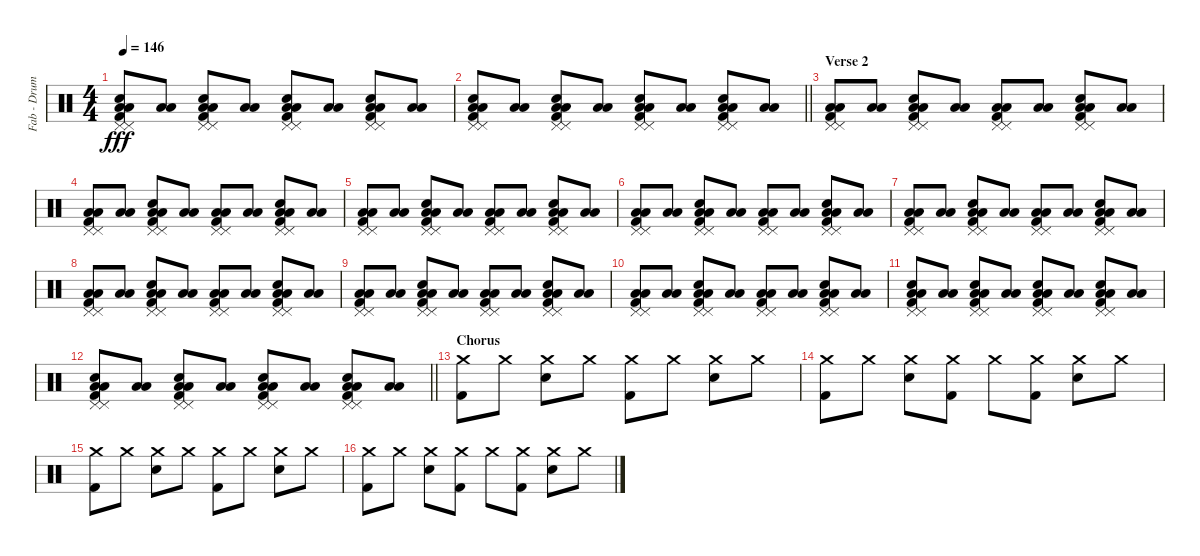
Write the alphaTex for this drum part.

\track ("Fab - Drums MIDI" "Fab - Drum") {instrument percussion}
\staff {score}
\articulation defaults
\ts (4 4)
\tempo 146
\clef neutral
\ks c
("Low Floor Tom (hit)" "Pedal Hi-Hat (hit)" "Snare (hit) 2" "Kick (hit) 2" "Pedal Hi-Hat (hit)" "Low Floor Tom (hit)").8{dy fff} ("Low Floor Tom (hit)" "Low Floor Tom (hit)").8 ("Low Floor Tom (hit)" "Pedal Hi-Hat (hit)" "Snare (hit) 2" "Kick (hit) 2" "Pedal Hi-Hat (hit)" "Low Floor Tom (hit)").8 ("Low Floor Tom (hit)" "Low Floor Tom (hit)").8 ("Low Floor Tom (hit)" "Pedal Hi-Hat (hit)" "Snare (hit) 2" "Kick (hit) 2" "Pedal Hi-Hat (hit)" "Low Floor Tom (hit)").8 ("Low Floor Tom (hit)" "Low Floor Tom (hit)").8 ("Low Floor Tom (hit)" "Pedal Hi-Hat (hit)" "Snare (hit) 2" "Kick (hit) 2" "Pedal Hi-Hat (hit)" "Low Floor Tom (hit)").8 ("Low Floor Tom (hit)" "Low Floor Tom (hit)").8 |
\barLineRight lightlight
("Low Floor Tom (hit)" "Pedal Hi-Hat (hit)" "Snare (hit) 2" "Kick (hit) 2" "Pedal Hi-Hat (hit)" "Low Floor Tom (hit)").8 ("Low Floor Tom (hit)" "Low Floor Tom (hit)").8 ("Low Floor Tom (hit)" "Pedal Hi-Hat (hit)" "Snare (hit) 2" "Kick (hit) 2" "Pedal Hi-Hat (hit)" "Low Floor Tom (hit)").8 ("Low Floor Tom (hit)" "Low Floor Tom (hit)").8 ("Low Floor Tom (hit)" "Pedal Hi-Hat (hit)" "Snare (hit) 2" "Kick (hit) 2" "Pedal Hi-Hat (hit)" "Low Floor Tom (hit)").8 ("Low Floor Tom (hit)" "Low Floor Tom (hit)").8 ("Low Floor Tom (hit)" "Pedal Hi-Hat (hit)" "Snare (hit) 2" "Kick (hit) 2" "Pedal Hi-Hat (hit)" "Low Floor Tom (hit)").8 ("Low Floor Tom (hit)" "Low Floor Tom (hit)").8 |
\section ("" "Verse 2")
("Low Floor Tom (hit)" "Pedal Hi-Hat (hit)" "Kick (hit) 2" "Pedal Hi-Hat (hit)" "Low Floor Tom (hit)").8 ("Low Floor Tom (hit)" "Low Floor Tom (hit)").8 ("Low Floor Tom (hit)" "Pedal Hi-Hat (hit)" "Snare (hit) 2" "Kick (hit) 2" "Pedal Hi-Hat (hit)" "Low Floor Tom (hit)").8 ("Low Floor Tom (hit)" "Low Floor Tom (hit)").8 ("Low Floor Tom (hit)" "Pedal Hi-Hat (hit)" "Kick (hit) 2" "Pedal Hi-Hat (hit)" "Low Floor Tom (hit)").8 ("Low Floor Tom (hit)" "Low Floor Tom (hit)").8 ("Low Floor Tom (hit)" "Pedal Hi-Hat (hit)" "Snare (hit) 2" "Kick (hit) 2" "Pedal Hi-Hat (hit)" "Low Floor Tom (hit)").8 ("Low Floor Tom (hit)" "Low Floor Tom (hit)").8 |
("Low Floor Tom (hit)" "Pedal Hi-Hat (hit)" "Kick (hit) 2" "Pedal Hi-Hat (hit)" "Low Floor Tom (hit)").8 ("Low Floor Tom (hit)" "Low Floor Tom (hit)").8 ("Low Floor Tom (hit)" "Pedal Hi-Hat (hit)" "Snare (hit) 2" "Kick (hit) 2" "Pedal Hi-Hat (hit)" "Low Floor Tom (hit)").8 ("Low Floor Tom (hit)" "Low Floor Tom (hit)").8 ("Low Floor Tom (hit)" "Pedal Hi-Hat (hit)" "Kick (hit) 2" "Pedal Hi-Hat (hit)" "Low Floor Tom (hit)").8 ("Low Floor Tom (hit)" "Low Floor Tom (hit)").8 ("Low Floor Tom (hit)" "Pedal Hi-Hat (hit)" "Snare (hit) 2" "Kick (hit) 2" "Pedal Hi-Hat (hit)" "Low Floor Tom (hit)").8 ("Low Floor Tom (hit)" "Low Floor Tom (hit)").8 |
("Low Floor Tom (hit)" "Pedal Hi-Hat (hit)" "Kick (hit) 2" "Pedal Hi-Hat (hit)" "Low Floor Tom (hit)").8 ("Low Floor Tom (hit)" "Low Floor Tom (hit)").8 ("Low Floor Tom (hit)" "Pedal Hi-Hat (hit)" "Snare (hit) 2" "Kick (hit) 2" "Pedal Hi-Hat (hit)" "Low Floor Tom (hit)").8 ("Low Floor Tom (hit)" "Low Floor Tom (hit)").8 ("Low Floor Tom (hit)" "Pedal Hi-Hat (hit)" "Kick (hit) 2" "Pedal Hi-Hat (hit)" "Low Floor Tom (hit)").8 ("Low Floor Tom (hit)" "Low Floor Tom (hit)").8 ("Low Floor Tom (hit)" "Pedal Hi-Hat (hit)" "Snare (hit) 2" "Kick (hit) 2" "Pedal Hi-Hat (hit)" "Low Floor Tom (hit)").8 ("Low Floor Tom (hit)" "Low Floor Tom (hit)").8 |
("Low Floor Tom (hit)" "Pedal Hi-Hat (hit)" "Kick (hit) 2" "Pedal Hi-Hat (hit)" "Low Floor Tom (hit)").8 ("Low Floor Tom (hit)" "Low Floor Tom (hit)").8 ("Low Floor Tom (hit)" "Pedal Hi-Hat (hit)" "Snare (hit) 2" "Kick (hit) 2" "Pedal Hi-Hat (hit)" "Low Floor Tom (hit)").8 ("Low Floor Tom (hit)" "Low Floor Tom (hit)").8 ("Low Floor Tom (hit)" "Pedal Hi-Hat (hit)" "Kick (hit) 2" "Pedal Hi-Hat (hit)" "Low Floor Tom (hit)").8 ("Low Floor Tom (hit)" "Low Floor Tom (hit)").8 ("Low Floor Tom (hit)" "Pedal Hi-Hat (hit)" "Snare (hit) 2" "Kick (hit) 2" "Pedal Hi-Hat (hit)" "Low Floor Tom (hit)").8 ("Low Floor Tom (hit)" "Low Floor Tom (hit)").8 |
("Low Floor Tom (hit)" "Pedal Hi-Hat (hit)" "Kick (hit) 2" "Pedal Hi-Hat (hit)" "Low Floor Tom (hit)").8 ("Low Floor Tom (hit)" "Low Floor Tom (hit)").8 ("Low Floor Tom (hit)" "Pedal Hi-Hat (hit)" "Snare (hit) 2" "Kick (hit) 2" "Pedal Hi-Hat (hit)" "Low Floor Tom (hit)").8 ("Low Floor Tom (hit)" "Low Floor Tom (hit)").8 ("Low Floor Tom (hit)" "Pedal Hi-Hat (hit)" "Kick (hit) 2" "Pedal Hi-Hat (hit)" "Low Floor Tom (hit)").8 ("Low Floor Tom (hit)" "Low Floor Tom (hit)").8 ("Low Floor Tom (hit)" "Pedal Hi-Hat (hit)" "Snare (hit) 2" "Kick (hit) 2" "Pedal Hi-Hat (hit)" "Low Floor Tom (hit)").8 ("Low Floor Tom (hit)" "Low Floor Tom (hit)").8 |
("Low Floor Tom (hit)" "Pedal Hi-Hat (hit)" "Kick (hit) 2" "Pedal Hi-Hat (hit)" "Low Floor Tom (hit)").8 ("Low Floor Tom (hit)" "Low Floor Tom (hit)").8 ("Low Floor Tom (hit)" "Pedal Hi-Hat (hit)" "Snare (hit) 2" "Kick (hit) 2" "Pedal Hi-Hat (hit)" "Low Floor Tom (hit)").8 ("Low Floor Tom (hit)" "Low Floor Tom (hit)").8 ("Low Floor Tom (hit)" "Pedal Hi-Hat (hit)" "Kick (hit) 2" "Pedal Hi-Hat (hit)" "Low Floor Tom (hit)").8 ("Low Floor Tom (hit)" "Low Floor Tom (hit)").8 ("Low Floor Tom (hit)" "Pedal Hi-Hat (hit)" "Snare (hit) 2" "Kick (hit) 2" "Pedal Hi-Hat (hit)" "Low Floor Tom (hit)").8 ("Low Floor Tom (hit)" "Low Floor Tom (hit)").8 |
("Low Floor Tom (hit)" "Pedal Hi-Hat (hit)" "Kick (hit) 2" "Pedal Hi-Hat (hit)" "Low Floor Tom (hit)").8 ("Low Floor Tom (hit)" "Low Floor Tom (hit)").8 ("Low Floor Tom (hit)" "Pedal Hi-Hat (hit)" "Snare (hit) 2" "Kick (hit) 2" "Pedal Hi-Hat (hit)" "Low Floor Tom (hit)").8 ("Low Floor Tom (hit)" "Low Floor Tom (hit)").8 ("Low Floor Tom (hit)" "Pedal Hi-Hat (hit)" "Kick (hit) 2" "Pedal Hi-Hat (hit)" "Low Floor Tom (hit)").8 ("Low Floor Tom (hit)" "Low Floor Tom (hit)").8 ("Low Floor Tom (hit)" "Pedal Hi-Hat (hit)" "Snare (hit) 2" "Kick (hit) 2" "Pedal Hi-Hat (hit)" "Low Floor Tom (hit)").8 ("Low Floor Tom (hit)" "Low Floor Tom (hit)").8 |
("Low Floor Tom (hit)" "Pedal Hi-Hat (hit)" "Kick (hit) 2" "Pedal Hi-Hat (hit)" "Low Floor Tom (hit)").8 ("Low Floor Tom (hit)" "Low Floor Tom (hit)").8 ("Low Floor Tom (hit)" "Pedal Hi-Hat (hit)" "Snare (hit) 2" "Kick (hit) 2" "Pedal Hi-Hat (hit)" "Low Floor Tom (hit)").8 ("Low Floor Tom (hit)" "Low Floor Tom (hit)").8 ("Low Floor Tom (hit)" "Pedal Hi-Hat (hit)" "Kick (hit) 2" "Pedal Hi-Hat (hit)" "Low Floor Tom (hit)").8 ("Low Floor Tom (hit)" "Low Floor Tom (hit)").8 ("Low Floor Tom (hit)" "Pedal Hi-Hat (hit)" "Snare (hit) 2" "Kick (hit) 2" "Pedal Hi-Hat (hit)" "Low Floor Tom (hit)").8 ("Low Floor Tom (hit)" "Low Floor Tom (hit)").8 |
("Low Floor Tom (hit)" "Pedal Hi-Hat (hit)" "Snare (hit) 2" "Kick (hit) 2" "Pedal Hi-Hat (hit)" "Low Floor Tom (hit)").8 ("Low Floor Tom (hit)" "Low Floor Tom (hit)").8 ("Low Floor Tom (hit)" "Pedal Hi-Hat (hit)" "Snare (hit) 2" "Kick (hit) 2" "Pedal Hi-Hat (hit)" "Low Floor Tom (hit)").8 ("Low Floor Tom (hit)" "Low Floor Tom (hit)").8 ("Low Floor Tom (hit)" "Pedal Hi-Hat (hit)" "Snare (hit) 2" "Kick (hit) 2" "Pedal Hi-Hat (hit)" "Low Floor Tom (hit)").8 ("Low Floor Tom (hit)" "Low Floor Tom (hit)").8 ("Low Floor Tom (hit)" "Pedal Hi-Hat (hit)" "Snare (hit) 2" "Kick (hit) 2" "Pedal Hi-Hat (hit)" "Low Floor Tom (hit)").8 ("Low Floor Tom (hit)" "Low Floor Tom (hit)").8 |
\barLineRight lightlight
("Low Floor Tom (hit)" "Pedal Hi-Hat (hit)" "Snare (hit) 2" "Kick (hit) 2" "Pedal Hi-Hat (hit)" "Low Floor Tom (hit)").8 ("Low Floor Tom (hit)" "Low Floor Tom (hit)").8 ("Low Floor Tom (hit)" "Pedal Hi-Hat (hit)" "Snare (hit) 2" "Kick (hit) 2" "Pedal Hi-Hat (hit)" "Low Floor Tom (hit)").8 ("Low Floor Tom (hit)" "Low Floor Tom (hit)").8 ("Low Floor Tom (hit)" "Pedal Hi-Hat (hit)" "Snare (hit) 2" "Kick (hit) 2" "Pedal Hi-Hat (hit)" "Low Floor Tom (hit)").8 ("Low Floor Tom (hit)" "Low Floor Tom (hit)").8 ("Low Floor Tom (hit)" "Pedal Hi-Hat (hit)" "Snare (hit) 2" "Kick (hit) 2" "Pedal Hi-Hat (hit)" "Low Floor Tom (hit)").8 ("Low Floor Tom (hit)" "Low Floor Tom (hit)").8 |
\section ("" "Chorus")
("Crash medium (hit)" "Kick (hit) 2").8 "Crash medium (hit)".8 ("Crash medium (hit)" "Snare (hit) 2").8 "Crash medium (hit)".8 ("Crash medium (hit)" "Kick (hit) 2").8 "Crash medium (hit)".8 ("Crash medium (hit)" "Snare (hit) 2").8 "Crash medium (hit)".8 |
("Crash medium (hit)" "Kick (hit) 2").8 "Crash medium (hit)".8 ("Crash medium (hit)" "Snare (hit) 2").8 ("Crash medium (hit)" "Kick (hit) 2").8 "Crash medium (hit)".8 ("Crash medium (hit)" "Kick (hit) 2").8 ("Crash medium (hit)" "Snare (hit) 2").8 "Crash medium (hit)".8 |
("Crash medium (hit)" "Kick (hit) 2").8 "Crash medium (hit)".8 ("Crash medium (hit)" "Snare (hit) 2").8 "Crash medium (hit)".8 ("Crash medium (hit)" "Kick (hit) 2").8 "Crash medium (hit)".8 ("Crash medium (hit)" "Snare (hit) 2").8 "Crash medium (hit)".8 |
("Crash medium (hit)" "Kick (hit) 2").8 "Crash medium (hit)".8 ("Crash medium (hit)" "Snare (hit) 2").8 ("Crash medium (hit)" "Kick (hit) 2").8 "Crash medium (hit)".8 ("Crash medium (hit)" "Kick (hit) 2").8 ("Crash medium (hit)" "Snare (hit) 2").8 "Crash medium (hit)".8
